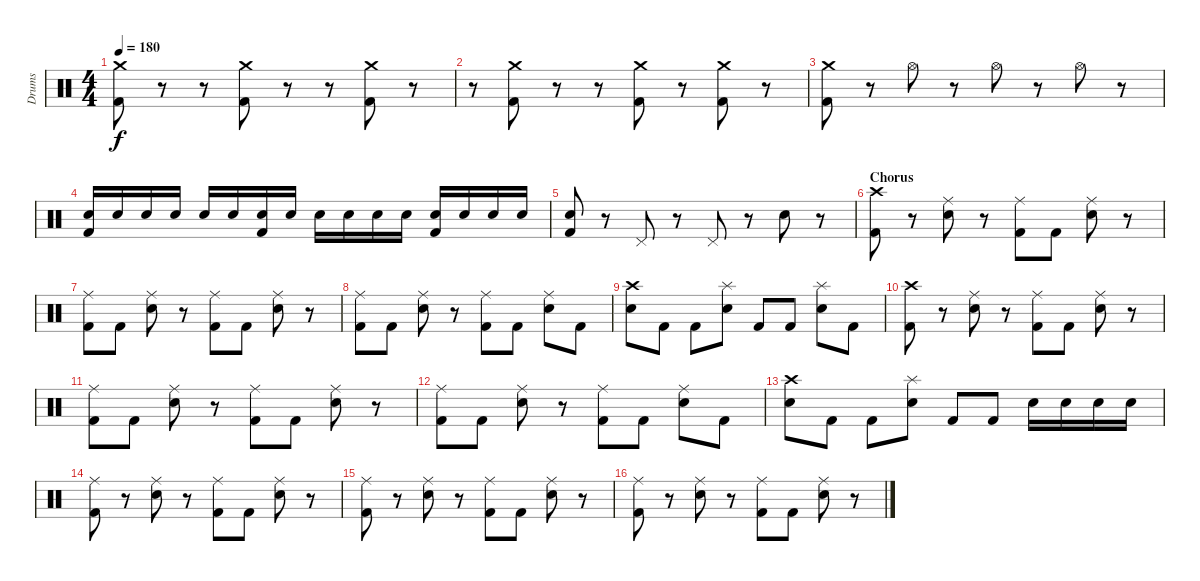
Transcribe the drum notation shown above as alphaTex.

\track ("Drums" "Drums") {instrument percussion}
\staff {score}
\articulation defaults
\ts (4 4)
\tempo 180
\clef neutral
\ks c
("Crash medium (hit)" "Kick (hit) 2").8{dy f} r.8 r.8 ("Crash medium (hit)" "Kick (hit) 2").8 r.8 r.8 ("Crash medium (hit)" "Kick (hit) 2").8 r.8 |
r.8 ("Crash medium (hit)" "Kick (hit) 2").8 r.8 r.8 ("Crash medium (hit)" "Kick (hit) 2").8 r.8 ("Crash medium (hit)" "Kick (hit) 2").8 r.8 |
("Crash medium (hit)" "Kick (hit) 2").8 r.8 "Hi-Hat (open)".8 r.8 "Hi-Hat (open)".8 r.8 "Hi-Hat (open)".8 r.8 |
("Snare (hit) 2" "Kick (hit) 2").16 "Snare (hit) 2".16 "Snare (hit) 2".16 "Snare (hit) 2".16 "Snare (hit) 2".16 "Snare (hit) 2".16 ("Snare (hit) 2" "Kick (hit) 2").16 "Snare (hit) 2".16 "Snare (hit) 2".16 "Snare (hit) 2".16 "Snare (hit) 2".16 "Snare (hit) 2".16 ("Snare (hit) 2" "Kick (hit) 2").16 "Snare (hit) 2".16 "Snare (hit) 2".16 "Snare (hit) 2".16 |
("Snare (hit) 2" "Kick (hit) 2").8 r.8 "Pedal Hi-Hat (hit)".8 r.8 "Pedal Hi-Hat (hit)".8 r.8 "Snare (hit) 2".8 r.8 |
\section ("" "Chorus")
("Crash high (hit)" "Kick (hit) 2").8 r.8 ("Ride (middle)" "Snare (hit) 2").8 r.8 ("Ride (middle)" "Kick (hit) 2").8 "Kick (hit) 2".8 ("Ride (middle)" "Snare (hit) 2").8 r.8 |
("Ride (middle)" "Kick (hit) 2").8 "Kick (hit) 2".8 ("Ride (middle)" "Snare (hit) 2").8 r.8 ("Ride (middle)" "Kick (hit) 2").8 "Kick (hit) 2".8 ("Ride (middle)" "Snare (hit) 2").8 r.8 |
("Ride (middle)" "Kick (hit) 2").8 "Kick (hit) 2".8 ("Ride (middle)" "Snare (hit) 2").8 r.8 ("Ride (middle)" "Kick (hit) 2").8 "Kick (hit) 2".8 ("Ride (middle)" "Snare (hit) 2").8 "Kick (hit) 2".8 |
("Crash high (hit)" "Snare (hit) 2").8 "Kick (hit) 2".8 "Kick (hit) 2".8 ("Splash (hit)" "Snare (hit) 2").8 "Kick (hit) 2".8 "Kick (hit) 2".8 ("Splash (hit)" "Snare (hit) 2").8 "Kick (hit) 2".8 |
("Crash high (hit)" "Kick (hit) 2").8 r.8 ("Ride (middle)" "Snare (hit) 2").8 r.8 ("Ride (middle)" "Kick (hit) 2").8 "Kick (hit) 2".8 ("Ride (middle)" "Snare (hit) 2").8 r.8 |
("Ride (middle)" "Kick (hit) 2").8 "Kick (hit) 2".8 ("Ride (middle)" "Snare (hit) 2").8 r.8 ("Ride (middle)" "Kick (hit) 2").8 "Kick (hit) 2".8 ("Ride (middle)" "Snare (hit) 2").8 r.8 |
("Ride (middle)" "Kick (hit) 2").8 "Kick (hit) 2".8 ("Ride (middle)" "Snare (hit) 2").8 r.8 ("Ride (middle)" "Kick (hit) 2").8 "Kick (hit) 2".8 ("Ride (middle)" "Snare (hit) 2").8 "Kick (hit) 2".8 |
("Crash high (hit)" "Snare (hit) 2").8 "Kick (hit) 2".8 "Kick (hit) 2".8 ("Splash (hit)" "Snare (hit) 2").8 "Kick (hit) 2".8 "Kick (hit) 2".8 "Snare (hit) 2".16 "Snare (hit) 2".16 "Snare (hit) 2".16 "Snare (hit) 2".16 |
("Ride (middle)" "Kick (hit) 2").8 r.8 ("Ride (middle)" "Snare (hit) 2").8 r.8 ("Ride (middle)" "Kick (hit) 2").8 "Kick (hit) 2".8 ("Ride (middle)" "Snare (hit) 2").8 r.8 |
("Ride (middle)" "Kick (hit) 2").8 r.8 ("Ride (middle)" "Snare (hit) 2").8 r.8 ("Ride (middle)" "Kick (hit) 2").8 "Kick (hit) 2".8 ("Ride (middle)" "Snare (hit) 2").8 r.8 |
("Ride (middle)" "Kick (hit) 2").8 r.8 ("Ride (middle)" "Snare (hit) 2").8 r.8 ("Ride (middle)" "Kick (hit) 2").8 "Kick (hit) 2".8 ("Ride (middle)" "Snare (hit) 2").8 r.8
